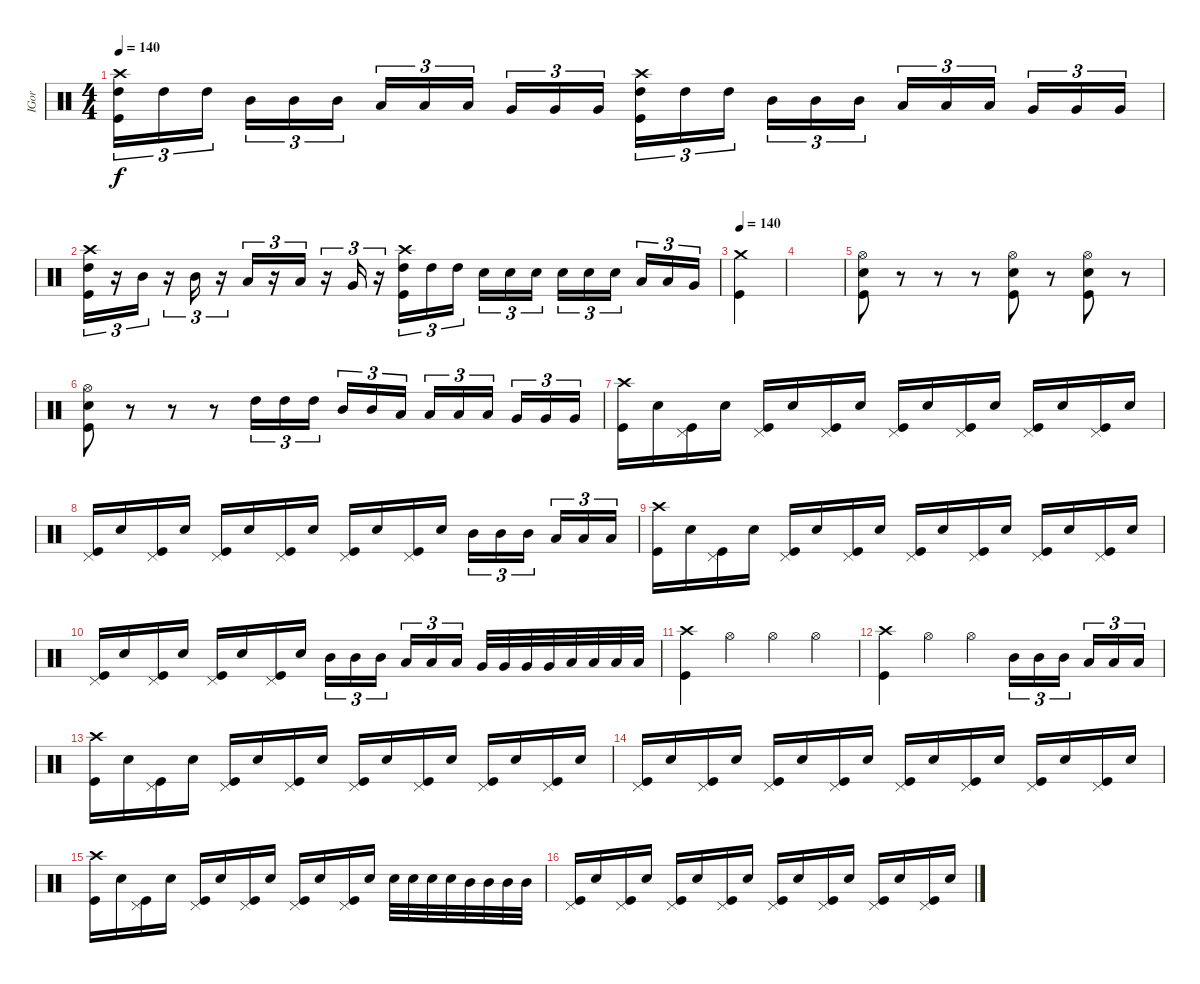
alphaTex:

\track ("IGor" "IGor") {instrument percussion}
\staff {score}
\articulation defaults
\ts (4 4)
\tempo 140
\tempo 120
\tempo 140
\clef neutral
\ks c
("Crash high (hit)" "High Tom (hit)" "Kick (hit)").16{tu (3 2) dy f} "High Tom (hit)".16{tu (3 2)} "High Tom (hit)".16{tu (3 2)} "Mid Tom (hit)".16{tu (3 2)} "Mid Tom (hit)".16{tu (3 2)} "Mid Tom (hit)".16{tu (3 2)} "Low Tom (hit)".16{tu (3 2)} "Low Tom (hit)".16{tu (3 2)} "Low Tom (hit)".16{tu (3 2)} "Very Low Tom (hit)".16{tu (3 2)} "Very Low Tom (hit)".16{tu (3 2)} "Very Low Tom (hit)".16{tu (3 2)} ("Crash high (hit)" "High Tom (hit)" "Kick (hit)").16{tu (3 2)} "High Tom (hit)".16{tu (3 2)} "High Tom (hit)".16{tu (3 2)} "Mid Tom (hit)".16{tu (3 2)} "Mid Tom (hit)".16{tu (3 2)} "Mid Tom (hit)".16{tu (3 2)} "Low Tom (hit)".16{tu (3 2)} "Low Tom (hit)".16{tu (3 2)} "Low Tom (hit)".16{tu (3 2)} "Very Low Tom (hit)".16{tu (3 2)} "Very Low Tom (hit)".16{tu (3 2)} "Very Low Tom (hit)".16{tu (3 2)} |
("Crash high (hit)" "High Tom (hit)" "Kick (hit)").16{tu (3 2)} r.16{tu (3 2)} "Mid Tom (hit)".16{tu (3 2)} r.16{tu (3 2)} "Mid Tom (hit)".16{tu (3 2)} r.16{tu (3 2)} "Low Tom (hit)".16{tu (3 2)} r.16{tu (3 2)} "Low Tom (hit)".16{tu (3 2)} r.16{tu (3 2)} "Very Low Tom (hit)".16{tu (3 2)} r.16{tu (3 2)} ("Crash high (hit)" "High Tom (hit)" "Kick (hit)").16{tu (3 2)} "High Tom (hit)".16{tu (3 2)} "High Tom (hit)".16{tu (3 2)} "Electric Snare (hit)".16{tu (3 2)} "Electric Snare (hit)".16{tu (3 2)} "Electric Snare (hit)".16{tu (3 2)} "Electric Snare (hit)".16{tu (3 2)} "Electric Snare (hit)".16{tu (3 2)} "Electric Snare (hit)".16{tu (3 2)} "Low Tom (hit)".16{tu (3 2)} "Low Tom (hit)".16{tu (3 2)} "Very Low Tom (hit)".16{tu (3 2)} |
\tempo 140
("Crash medium (hit)" "Kick (hit)").4 |
|
("Hi-Hat (open)" "Kick (hit)" "Electric Snare (hit)").8 r.8 r.8 r.8 ("Hi-Hat (open)" "Kick (hit)" "Electric Snare (hit)").8 r.8 ("Hi-Hat (open)" "Kick (hit)" "Electric Snare (hit)").8 r.8 |
("Hi-Hat (open)" "Kick (hit)" "Electric Snare (hit)").8 r.8 r.8 r.8 "High Tom (hit)".16{tu (3 2)} "High Tom (hit)".16{tu (3 2)} "High Tom (hit)".16{tu (3 2)} "Mid Tom (hit)".16{tu (3 2)} "Mid Tom (hit)".16{tu (3 2)} "Low Tom (hit)".16{tu (3 2)} "Low Tom (hit)".16{tu (3 2)} "Low Tom (hit)".16{tu (3 2)} "Low Tom (hit)".16{tu (3 2)} "Very Low Tom (hit)".16{tu (3 2)} "Very Low Tom (hit)".16{tu (3 2)} "Very Low Tom (hit)".16{tu (3 2)} |
("Kick (hit)" "Crash high (hit)").16 "Electric Snare (hit)".16 ("Pedal Hi-Hat (hit)" "Kick (hit)").16 "Electric Snare (hit)".16 ("Pedal Hi-Hat (hit)" "Kick (hit)").16 "Electric Snare (hit)".16 ("Pedal Hi-Hat (hit)" "Kick (hit)").16 "Electric Snare (hit)".16 ("Pedal Hi-Hat (hit)" "Kick (hit)").16 "Electric Snare (hit)".16 ("Pedal Hi-Hat (hit)" "Kick (hit)").16 "Electric Snare (hit)".16 ("Pedal Hi-Hat (hit)" "Kick (hit)").16 "Electric Snare (hit)".16 ("Pedal Hi-Hat (hit)" "Kick (hit)").16 "Electric Snare (hit)".16 |
("Pedal Hi-Hat (hit)" "Kick (hit)").16 "Electric Snare (hit)".16 ("Pedal Hi-Hat (hit)" "Kick (hit)").16 "Electric Snare (hit)".16 ("Pedal Hi-Hat (hit)" "Kick (hit)").16 "Electric Snare (hit)".16 ("Pedal Hi-Hat (hit)" "Kick (hit)").16 "Electric Snare (hit)".16 ("Pedal Hi-Hat (hit)" "Kick (hit)").16 "Electric Snare (hit)".16 ("Pedal Hi-Hat (hit)" "Kick (hit)").16 "Electric Snare (hit)".16 "Mid Tom (hit)".16{tu (3 2)} "Mid Tom (hit)".16{tu (3 2)} "Mid Tom (hit)".16{tu (3 2)} "Low Tom (hit)".16{tu (3 2)} "Low Tom (hit)".16{tu (3 2)} "Low Tom (hit)".16{tu (3 2)} |
("Kick (hit)" "Crash high (hit)").16 "Electric Snare (hit)".16 ("Pedal Hi-Hat (hit)" "Kick (hit)").16 "Electric Snare (hit)".16 ("Pedal Hi-Hat (hit)" "Kick (hit)").16 "Electric Snare (hit)".16 ("Pedal Hi-Hat (hit)" "Kick (hit)").16 "Electric Snare (hit)".16 ("Pedal Hi-Hat (hit)" "Kick (hit)").16 "Electric Snare (hit)".16 ("Pedal Hi-Hat (hit)" "Kick (hit)").16 "Electric Snare (hit)".16 ("Pedal Hi-Hat (hit)" "Kick (hit)").16 "Electric Snare (hit)".16 ("Pedal Hi-Hat (hit)" "Kick (hit)").16 "Electric Snare (hit)".16 |
("Pedal Hi-Hat (hit)" "Kick (hit)").16 "Electric Snare (hit)".16 ("Pedal Hi-Hat (hit)" "Kick (hit)").16 "Electric Snare (hit)".16 ("Pedal Hi-Hat (hit)" "Kick (hit)").16 "Electric Snare (hit)".16 ("Pedal Hi-Hat (hit)" "Kick (hit)").16 "Electric Snare (hit)".16 "Mid Tom (hit)".16{tu (3 2)} "Mid Tom (hit)".16{tu (3 2)} "Mid Tom (hit)".16{tu (3 2)} "Low Tom (hit)".16{tu (3 2)} "Low Tom (hit)".16{tu (3 2)} "Low Tom (hit)".16{tu (3 2)} "Very Low Tom (hit)".32 "Very Low Tom (hit)".32 "Very Low Tom (hit)".32 "Very Low Tom (hit)".32 "Low Floor Tom (hit)".32 "Low Floor Tom (hit)".32 "Low Floor Tom (hit)".32 "Low Floor Tom (hit)".32 |
("Crash high (hit)" "Kick (hit)").4 "Hi-Hat (open)".4 "Hi-Hat (open)".4 "Hi-Hat (open)".4 |
("Kick (hit)" "Crash high (hit)").4 "Hi-Hat (open)".4 "Hi-Hat (open)".4 "Mid Tom (hit)".16{tu (3 2)} "Mid Tom (hit)".16{tu (3 2)} "Mid Tom (hit)".16{tu (3 2)} "Low Tom (hit)".16{tu (3 2)} "Low Tom (hit)".16{tu (3 2)} "Low Tom (hit)".16{tu (3 2)} |
("Kick (hit)" "Crash high (hit)").16 "Electric Snare (hit)".16 ("Pedal Hi-Hat (hit)" "Kick (hit)").16 "Electric Snare (hit)".16 ("Pedal Hi-Hat (hit)" "Kick (hit)").16 "Electric Snare (hit)".16 ("Pedal Hi-Hat (hit)" "Kick (hit)").16 "Electric Snare (hit)".16 ("Pedal Hi-Hat (hit)" "Kick (hit)").16 "Electric Snare (hit)".16 ("Pedal Hi-Hat (hit)" "Kick (hit)").16 "Electric Snare (hit)".16 ("Pedal Hi-Hat (hit)" "Kick (hit)").16 "Electric Snare (hit)".16 ("Pedal Hi-Hat (hit)" "Kick (hit)").16 "Electric Snare (hit)".16 |
("Kick (hit)" "Pedal Hi-Hat (hit)").16 "Electric Snare (hit)".16 ("Pedal Hi-Hat (hit)" "Kick (hit)").16 "Electric Snare (hit)".16 ("Pedal Hi-Hat (hit)" "Kick (hit)").16 "Electric Snare (hit)".16 ("Pedal Hi-Hat (hit)" "Kick (hit)").16 "Electric Snare (hit)".16 ("Pedal Hi-Hat (hit)" "Kick (hit)").16 "Electric Snare (hit)".16 ("Pedal Hi-Hat (hit)" "Kick (hit)").16 "Electric Snare (hit)".16 ("Pedal Hi-Hat (hit)" "Kick (hit)").16 "Electric Snare (hit)".16 ("Pedal Hi-Hat (hit)" "Kick (hit)").16 "Electric Snare (hit)".16 |
("Kick (hit)" "Crash high (hit)").16 "Electric Snare (hit)".16 ("Pedal Hi-Hat (hit)" "Kick (hit)").16 "Electric Snare (hit)".16 ("Pedal Hi-Hat (hit)" "Kick (hit)").16 "Electric Snare (hit)".16 ("Pedal Hi-Hat (hit)" "Kick (hit)").16 "Electric Snare (hit)".16 ("Pedal Hi-Hat (hit)" "Kick (hit)").16 "Electric Snare (hit)".16 ("Pedal Hi-Hat (hit)" "Kick (hit)").16 "Electric Snare (hit)".16 "Electric Snare (hit)".32 "Electric Snare (hit)".32 "Electric Snare (hit)".32 "Electric Snare (hit)".32 "Mid Tom (hit)".32 "Mid Tom (hit)".32 "Mid Tom (hit)".32 "Mid Tom (hit)".32 |
("Kick (hit)" "Pedal Hi-Hat (hit)").16 "Electric Snare (hit)".16 ("Pedal Hi-Hat (hit)" "Kick (hit)").16 "Electric Snare (hit)".16 ("Pedal Hi-Hat (hit)" "Kick (hit)").16 "Electric Snare (hit)".16 ("Pedal Hi-Hat (hit)" "Kick (hit)").16 "Electric Snare (hit)".16 ("Pedal Hi-Hat (hit)" "Kick (hit)").16 "Electric Snare (hit)".16 ("Pedal Hi-Hat (hit)" "Kick (hit)").16 "Electric Snare (hit)".16 ("Pedal Hi-Hat (hit)" "Kick (hit)").16 "Electric Snare (hit)".16 ("Pedal Hi-Hat (hit)" "Kick (hit)").16 "Electric Snare (hit)".16
